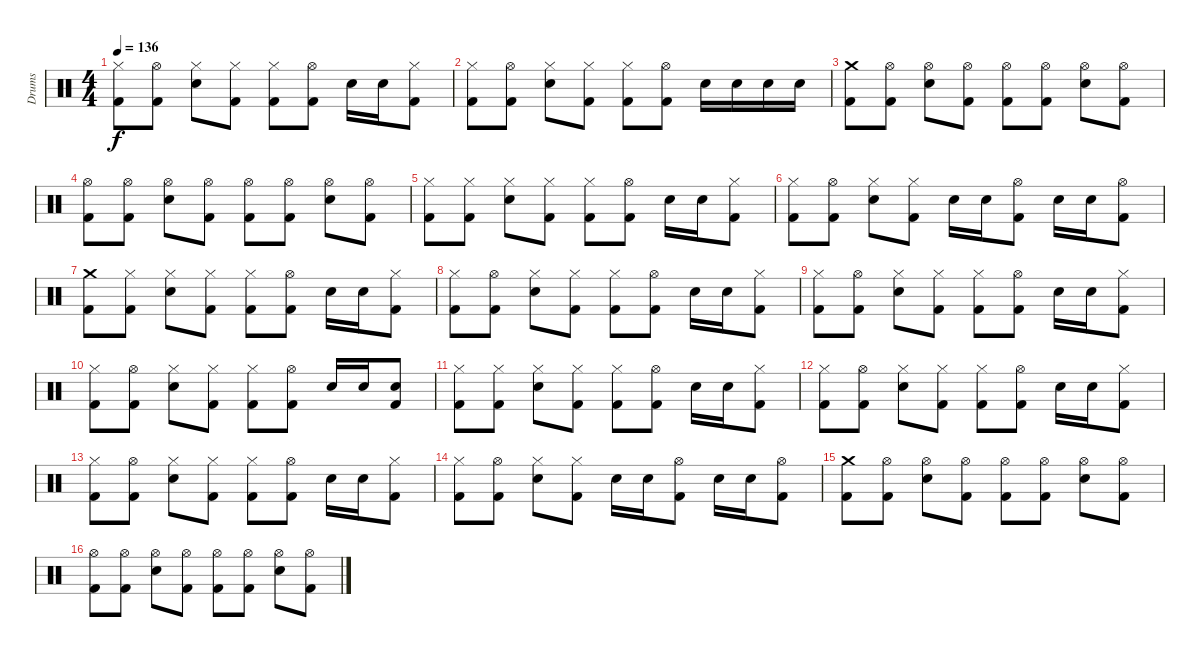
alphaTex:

\track ("Drums" "Drums") {instrument percussion}
\staff {score}
\articulation defaults
\ts (4 4)
\tempo 136
\clef neutral
\ks c
("Hi-Hat (closed)" "Kick (hit) 2").8{dy f} ("Hi-Hat (open)" "Kick (hit) 2").8 ("Hi-Hat (closed)" "Electric Snare (hit)").8 ("Hi-Hat (closed)" "Kick (hit) 2").8 ("Hi-Hat (closed)" "Kick (hit) 2").8 ("Hi-Hat (open)" "Kick (hit) 2").8 "Electric Snare (hit)".16 "Electric Snare (hit)".16 ("Hi-Hat (closed)" "Kick (hit) 2").8 |
("Hi-Hat (closed)" "Kick (hit) 2").8 ("Hi-Hat (open)" "Kick (hit) 2").8 ("Hi-Hat (closed)" "Electric Snare (hit)").8 ("Hi-Hat (closed)" "Kick (hit) 2").8 ("Hi-Hat (closed)" "Kick (hit) 2").8 ("Hi-Hat (open)" "Kick (hit) 2").8 "Electric Snare (hit)".16 "Electric Snare (hit)".16 "Electric Snare (hit)".16 "Electric Snare (hit)".16 |
("Crash medium (hit)" "Kick (hit) 2").8 ("Hi-Hat (open)" "Kick (hit) 2").8 ("Hi-Hat (open)" "Electric Snare (hit)").8 ("Hi-Hat (open)" "Kick (hit) 2").8 ("Hi-Hat (open)" "Kick (hit) 2").8 ("Hi-Hat (open)" "Kick (hit) 2").8 ("Hi-Hat (open)" "Electric Snare (hit)").8 ("Hi-Hat (open)" "Kick (hit) 2").8 |
("Hi-Hat (open)" "Kick (hit) 2").8 ("Hi-Hat (open)" "Kick (hit) 2").8 ("Hi-Hat (open)" "Electric Snare (hit)").8 ("Hi-Hat (open)" "Kick (hit) 2").8 ("Hi-Hat (open)" "Kick (hit) 2").8 ("Hi-Hat (open)" "Kick (hit) 2").8 ("Hi-Hat (open)" "Electric Snare (hit)").8 ("Hi-Hat (open)" "Kick (hit) 2").8 |
("Hi-Hat (closed)" "Kick (hit) 2").8 ("Hi-Hat (closed)" "Kick (hit) 2").8 ("Hi-Hat (closed)" "Electric Snare (hit)").8 ("Hi-Hat (closed)" "Kick (hit) 2").8 ("Hi-Hat (closed)" "Kick (hit) 2").8 ("Hi-Hat (open)" "Kick (hit) 2").8 "Electric Snare (hit)".16 "Electric Snare (hit)".16 ("Hi-Hat (closed)" "Kick (hit) 2").8 |
("Hi-Hat (closed)" "Kick (hit) 2").8 ("Hi-Hat (open)" "Kick (hit) 2").8 ("Hi-Hat (closed)" "Electric Snare (hit)").8 ("Hi-Hat (closed)" "Kick (hit) 2").8 "Electric Snare (hit)".16 "Electric Snare (hit)".16 ("Hi-Hat (open)" "Kick (hit) 2").8 "Electric Snare (hit)".16 "Electric Snare (hit)".16 ("Hi-Hat (open)" "Kick (hit) 2").8 |
("Crash medium (hit)" "Kick (hit) 2").8 ("Hi-Hat (closed)" "Kick (hit) 2").8 ("Hi-Hat (closed)" "Electric Snare (hit)").8 ("Hi-Hat (closed)" "Kick (hit) 2").8 ("Hi-Hat (closed)" "Kick (hit) 2").8 ("Hi-Hat (open)" "Kick (hit) 2").8 "Electric Snare (hit)".16 "Electric Snare (hit)".16 ("Hi-Hat (closed)" "Kick (hit) 2").8 |
("Hi-Hat (closed)" "Kick (hit) 2").8 ("Hi-Hat (open)" "Kick (hit) 2").8 ("Hi-Hat (closed)" "Electric Snare (hit)").8 ("Hi-Hat (closed)" "Kick (hit) 2").8 ("Hi-Hat (closed)" "Kick (hit) 2").8 ("Hi-Hat (open)" "Kick (hit) 2").8 "Electric Snare (hit)".16 "Electric Snare (hit)".16 ("Hi-Hat (closed)" "Kick (hit) 2").8 |
("Hi-Hat (closed)" "Kick (hit) 2").8 ("Hi-Hat (open)" "Kick (hit) 2").8 ("Hi-Hat (closed)" "Electric Snare (hit)").8 ("Hi-Hat (closed)" "Kick (hit) 2").8 ("Hi-Hat (closed)" "Kick (hit) 2").8 ("Hi-Hat (open)" "Kick (hit) 2").8 "Electric Snare (hit)".16 "Electric Snare (hit)".16 ("Hi-Hat (closed)" "Kick (hit) 2").8 |
("Hi-Hat (closed)" "Kick (hit) 2").8 ("Hi-Hat (open)" "Kick (hit) 2").8 ("Hi-Hat (closed)" "Electric Snare (hit)").8 ("Hi-Hat (closed)" "Kick (hit) 2").8 ("Hi-Hat (closed)" "Kick (hit) 2").8 ("Hi-Hat (open)" "Kick (hit) 2").8 "Electric Snare (hit)".16 "Electric Snare (hit)".16 ("Electric Snare (hit)" "Kick (hit) 2").8 |
("Hi-Hat (closed)" "Kick (hit) 2").8 ("Hi-Hat (closed)" "Kick (hit) 2").8 ("Hi-Hat (closed)" "Electric Snare (hit)").8 ("Hi-Hat (closed)" "Kick (hit) 2").8 ("Hi-Hat (closed)" "Kick (hit) 2").8 ("Hi-Hat (open)" "Kick (hit) 2").8 "Electric Snare (hit)".16 "Electric Snare (hit)".16 ("Hi-Hat (closed)" "Kick (hit) 2").8 |
("Hi-Hat (closed)" "Kick (hit) 2").8 ("Hi-Hat (open)" "Kick (hit) 2").8 ("Hi-Hat (closed)" "Electric Snare (hit)").8 ("Hi-Hat (closed)" "Kick (hit) 2").8 ("Hi-Hat (closed)" "Kick (hit) 2").8 ("Hi-Hat (open)" "Kick (hit) 2").8 "Electric Snare (hit)".16 "Electric Snare (hit)".16 ("Hi-Hat (closed)" "Kick (hit) 2").8 |
("Hi-Hat (closed)" "Kick (hit) 2").8 ("Hi-Hat (open)" "Kick (hit) 2").8 ("Hi-Hat (closed)" "Electric Snare (hit)").8 ("Hi-Hat (closed)" "Kick (hit) 2").8 ("Hi-Hat (closed)" "Kick (hit) 2").8 ("Hi-Hat (open)" "Kick (hit) 2").8 "Electric Snare (hit)".16 "Electric Snare (hit)".16 ("Hi-Hat (closed)" "Kick (hit) 2").8 |
("Hi-Hat (closed)" "Kick (hit) 2").8 ("Hi-Hat (open)" "Kick (hit) 2").8 ("Hi-Hat (closed)" "Electric Snare (hit)").8 ("Hi-Hat (closed)" "Kick (hit) 2").8 "Electric Snare (hit)".16 "Electric Snare (hit)".16 ("Hi-Hat (open)" "Kick (hit) 2").8 "Electric Snare (hit)".16 "Electric Snare (hit)".16 ("Hi-Hat (open)" "Kick (hit) 2").8 |
("Crash medium (hit)" "Kick (hit) 2").8 ("Hi-Hat (open)" "Kick (hit) 2").8 ("Hi-Hat (open)" "Electric Snare (hit)").8 ("Hi-Hat (open)" "Kick (hit) 2").8 ("Hi-Hat (open)" "Kick (hit) 2").8 ("Hi-Hat (open)" "Kick (hit) 2").8 ("Hi-Hat (open)" "Electric Snare (hit)").8 ("Hi-Hat (open)" "Kick (hit) 2").8 |
("Hi-Hat (open)" "Kick (hit) 2").8 ("Hi-Hat (open)" "Kick (hit) 2").8 ("Hi-Hat (open)" "Electric Snare (hit)").8 ("Hi-Hat (open)" "Kick (hit) 2").8 ("Hi-Hat (open)" "Kick (hit) 2").8 ("Hi-Hat (open)" "Kick (hit) 2").8 ("Hi-Hat (open)" "Electric Snare (hit)").8 ("Hi-Hat (open)" "Kick (hit) 2").8
